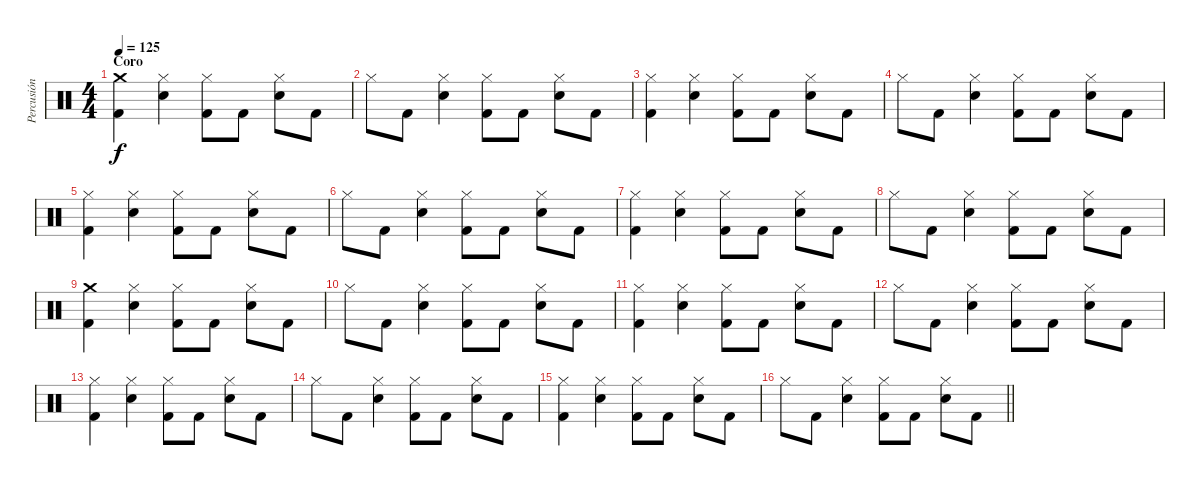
\track ("Percusión" "Percusión") {instrument percussion}
\staff {score}
\articulation defaults
\ts (4 4)
\section ("" "Coro")
\tempo 125
\clef neutral
\ks c
("Crash medium (hit)" "Kick (hit) 2").4{dy f} ("Snare (hit) 2" "Hi-Hat (closed)").4 ("Kick (hit) 2" "Hi-Hat (closed)").8 "Kick (hit) 2".8 ("Hi-Hat (closed)" "Snare (hit) 2").8 "Kick (hit) 2".8 |
"Hi-Hat (closed)".8 "Kick (hit) 2".8 ("Hi-Hat (closed)" "Snare (hit) 2").4 ("Hi-Hat (closed)" "Kick (hit) 2").8 "Kick (hit) 2".8 ("Hi-Hat (closed)" "Snare (hit) 2").8 "Kick (hit) 2".8 |
("Hi-Hat (closed)" "Kick (hit) 2").4 ("Snare (hit) 2" "Hi-Hat (closed)").4 ("Kick (hit) 2" "Hi-Hat (closed)").8 "Kick (hit) 2".8 ("Hi-Hat (closed)" "Snare (hit) 2").8 "Kick (hit) 2".8 |
"Hi-Hat (closed)".8 "Kick (hit) 2".8 ("Hi-Hat (closed)" "Snare (hit) 2").4 ("Hi-Hat (closed)" "Kick (hit) 2").8 "Kick (hit) 2".8 ("Hi-Hat (closed)" "Snare (hit) 2").8 "Kick (hit) 2".8 |
("Hi-Hat (closed)" "Kick (hit) 2").4 ("Snare (hit) 2" "Hi-Hat (closed)").4 ("Kick (hit) 2" "Hi-Hat (closed)").8 "Kick (hit) 2".8 ("Hi-Hat (closed)" "Snare (hit) 2").8 "Kick (hit) 2".8 |
"Hi-Hat (closed)".8 "Kick (hit) 2".8 ("Hi-Hat (closed)" "Snare (hit) 2").4 ("Hi-Hat (closed)" "Kick (hit) 2").8 "Kick (hit) 2".8 ("Hi-Hat (closed)" "Snare (hit) 2").8 "Kick (hit) 2".8 |
("Hi-Hat (closed)" "Kick (hit) 2").4 ("Snare (hit) 2" "Hi-Hat (closed)").4 ("Kick (hit) 2" "Hi-Hat (closed)").8 "Kick (hit) 2".8 ("Hi-Hat (closed)" "Snare (hit) 2").8 "Kick (hit) 2".8 |
"Hi-Hat (closed)".8 "Kick (hit) 2".8 ("Hi-Hat (closed)" "Snare (hit) 2").4 ("Hi-Hat (closed)" "Kick (hit) 2").8 "Kick (hit) 2".8 ("Hi-Hat (closed)" "Snare (hit) 2").8 "Kick (hit) 2".8 |
("Crash medium (hit)" "Kick (hit) 2").4 ("Snare (hit) 2" "Hi-Hat (closed)").4 ("Kick (hit) 2" "Hi-Hat (closed)").8 "Kick (hit) 2".8 ("Hi-Hat (closed)" "Snare (hit) 2").8 "Kick (hit) 2".8 |
"Hi-Hat (closed)".8 "Kick (hit) 2".8 ("Hi-Hat (closed)" "Snare (hit) 2").4 ("Hi-Hat (closed)" "Kick (hit) 2").8 "Kick (hit) 2".8 ("Hi-Hat (closed)" "Snare (hit) 2").8 "Kick (hit) 2".8 |
("Hi-Hat (closed)" "Kick (hit) 2").4 ("Snare (hit) 2" "Hi-Hat (closed)").4 ("Kick (hit) 2" "Hi-Hat (closed)").8 "Kick (hit) 2".8 ("Hi-Hat (closed)" "Snare (hit) 2").8 "Kick (hit) 2".8 |
"Hi-Hat (closed)".8 "Kick (hit) 2".8 ("Hi-Hat (closed)" "Snare (hit) 2").4 ("Hi-Hat (closed)" "Kick (hit) 2").8 "Kick (hit) 2".8 ("Hi-Hat (closed)" "Snare (hit) 2").8 "Kick (hit) 2".8 |
("Hi-Hat (closed)" "Kick (hit) 2").4 ("Snare (hit) 2" "Hi-Hat (closed)").4 ("Kick (hit) 2" "Hi-Hat (closed)").8 "Kick (hit) 2".8 ("Hi-Hat (closed)" "Snare (hit) 2").8 "Kick (hit) 2".8 |
"Hi-Hat (closed)".8 "Kick (hit) 2".8 ("Hi-Hat (closed)" "Snare (hit) 2").4 ("Hi-Hat (closed)" "Kick (hit) 2").8 "Kick (hit) 2".8 ("Hi-Hat (closed)" "Snare (hit) 2").8 "Kick (hit) 2".8 |
("Hi-Hat (closed)" "Kick (hit) 2").4 ("Snare (hit) 2" "Hi-Hat (closed)").4 ("Kick (hit) 2" "Hi-Hat (closed)").8 "Kick (hit) 2".8 ("Hi-Hat (closed)" "Snare (hit) 2").8 "Kick (hit) 2".8 |
\barLineRight lightlight "Hi-Hat (closed)".8 "Kick (hit) 2".8
("Hi-Hat (closed)" "Snare (hit) 2").4 ("Hi-Hat (closed)" "Kick (hit) 2").8 "Kick (hit) 2".8 ("Hi-Hat (closed)" "Snare (hit) 2").8 "Kick (hit) 2".8
